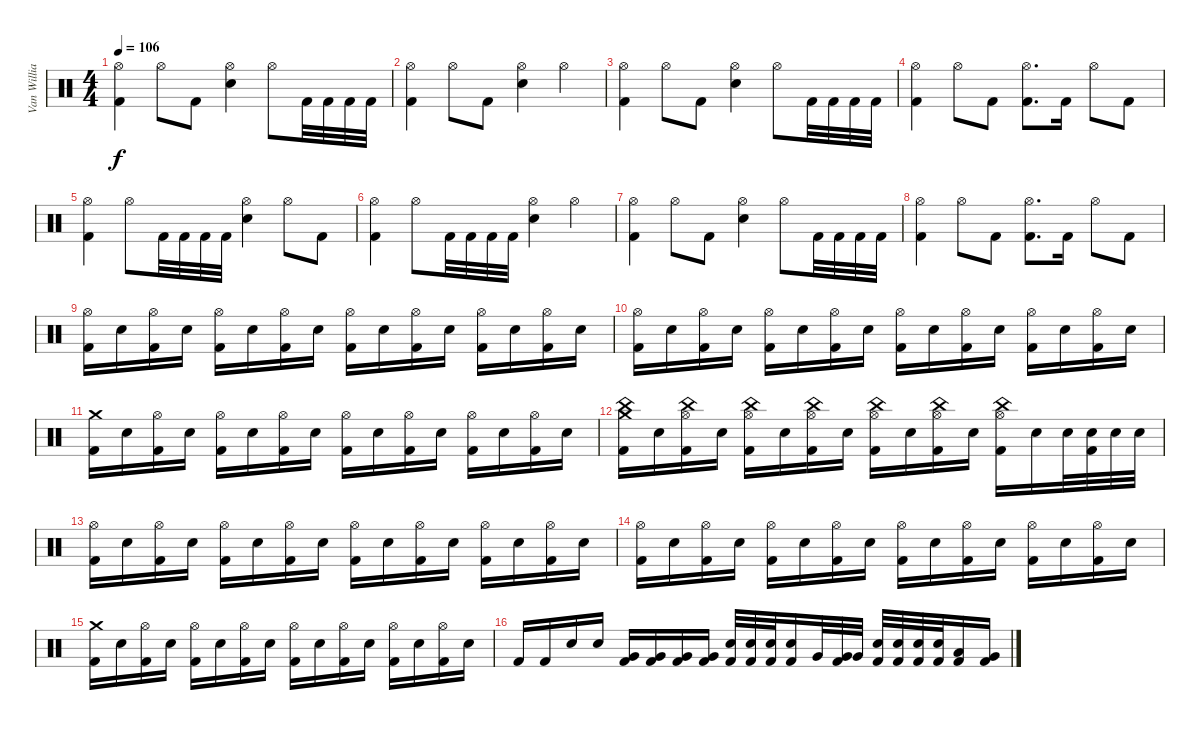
\track ("Van Williams" "Van Willia") {instrument percussion}
\staff {score}
\articulation defaults
\ts (4 4)
\tempo 106
\clef neutral
\ks c
("Hi-Hat (open)" "Kick (hit) 2").4{dy f} "Hi-Hat (open)".8 "Kick (hit) 2".8 ("Electric Snare (hit)" "Hi-Hat (open)").4 "Hi-Hat (open)".8 "Kick (hit) 2".32 "Kick (hit) 2".32 "Kick (hit) 2".32 "Kick (hit) 2".32 |
("Kick (hit) 2" "Hi-Hat (open)").4 "Hi-Hat (open)".8 "Kick (hit) 2".8 ("Electric Snare (hit)" "Hi-Hat (open)").4 "Hi-Hat (open)".4 |
("Kick (hit) 2" "Hi-Hat (open)").4 "Hi-Hat (open)".8 "Kick (hit) 2".8 ("Electric Snare (hit)" "Hi-Hat (open)").4 "Hi-Hat (open)".8 "Kick (hit) 2".32 "Kick (hit) 2".32 "Kick (hit) 2".32 "Kick (hit) 2".32 |
("Kick (hit) 2" "Hi-Hat (open)").4 "Hi-Hat (open)".8 "Kick (hit) 2".8 ("Kick (hit) 2" "Hi-Hat (open)").8{d} "Kick (hit) 2".16 "Hi-Hat (open)".8 "Kick (hit) 2".8 |
("Kick (hit) 2" "Hi-Hat (open)").4 "Hi-Hat (open)".8 "Kick (hit) 2".32 "Kick (hit) 2".32 "Kick (hit) 2".32 "Kick (hit) 2".32 ("Electric Snare (hit)" "Hi-Hat (open)").4 "Hi-Hat (open)".8 "Kick (hit) 2".8 |
("Kick (hit) 2" "Hi-Hat (open)").4 "Hi-Hat (open)".8 "Kick (hit) 2".32 "Kick (hit) 2".32 "Kick (hit) 2".32 "Kick (hit) 2".32 ("Electric Snare (hit)" "Hi-Hat (open)").4 "Hi-Hat (open)".4 |
("Kick (hit) 2" "Hi-Hat (open)").4 "Hi-Hat (open)".8 "Kick (hit) 2".8 ("Electric Snare (hit)" "Hi-Hat (open)").4 "Hi-Hat (open)".8 "Kick (hit) 2".32 "Kick (hit) 2".32 "Kick (hit) 2".32 "Kick (hit) 2".32 |
("Kick (hit) 2" "Hi-Hat (open)").4 "Hi-Hat (open)".8 "Kick (hit) 2".8 ("Kick (hit) 2" "Hi-Hat (open)").8{d} "Kick (hit) 2".16 "Hi-Hat (open)".8 "Kick (hit) 2".8 |
("Kick (hit) 2" "Hi-Hat (open)").16 "Electric Snare (hit)".16 ("Kick (hit) 2" "Hi-Hat (open)").16 "Electric Snare (hit)".16 ("Kick (hit) 2" "Hi-Hat (open)").16 "Electric Snare (hit)".16 ("Kick (hit) 2" "Hi-Hat (open)").16 "Electric Snare (hit)".16 ("Kick (hit) 2" "Hi-Hat (open)").16 "Electric Snare (hit)".16 ("Kick (hit) 2" "Hi-Hat (open)").16 "Electric Snare (hit)".16 ("Kick (hit) 2" "Hi-Hat (open)").16 "Electric Snare (hit)".16 ("Kick (hit) 2" "Hi-Hat (open)").16 "Electric Snare (hit)".16 |
("Kick (hit) 2" "Hi-Hat (open)").16 "Electric Snare (hit)".16 ("Kick (hit) 2" "Hi-Hat (open)").16 "Electric Snare (hit)".16 ("Kick (hit) 2" "Hi-Hat (open)").16 "Electric Snare (hit)".16 ("Kick (hit) 2" "Hi-Hat (open)").16 "Electric Snare (hit)".16 ("Kick (hit) 2" "Hi-Hat (open)").16 "Electric Snare (hit)".16 ("Kick (hit) 2" "Hi-Hat (open)").16 "Electric Snare (hit)".16 ("Kick (hit) 2" "Hi-Hat (open)").16 "Electric Snare (hit)".16 ("Kick (hit) 2" "Hi-Hat (open)").16 "Electric Snare (hit)".16 |
("Crash medium (hit)" "Kick (hit) 2").16 "Electric Snare (hit)".16 ("Kick (hit) 2" "Hi-Hat (open)").16 "Electric Snare (hit)".16 ("Kick (hit) 2" "Hi-Hat (open)").16 "Electric Snare (hit)".16 ("Kick (hit) 2" "Hi-Hat (open)").16 "Electric Snare (hit)".16 ("Kick (hit) 2" "Hi-Hat (open)").16 "Electric Snare (hit)".16 ("Kick (hit) 2" "Hi-Hat (open)").16 "Electric Snare (hit)".16 ("Kick (hit) 2" "Hi-Hat (open)").16 "Electric Snare (hit)".16 ("Kick (hit) 2" "Hi-Hat (open)").16 "Electric Snare (hit)".16 |
("Crash medium (hit)" "Kick (hit) 2" "China (hit)").16 "Electric Snare (hit)".16 ("Kick (hit) 2" "Hi-Hat (open)" "China (hit)").16 "Electric Snare (hit)".16 ("Kick (hit) 2" "Hi-Hat (open)" "China (hit)").16 "Electric Snare (hit)".16 ("Kick (hit) 2" "Hi-Hat (open)" "China (hit)").16 "Electric Snare (hit)".16 ("Kick (hit) 2" "Hi-Hat (open)" "China (hit)").16 "Electric Snare (hit)".16 ("Kick (hit) 2" "Hi-Hat (open)" "China (hit)").16 "Electric Snare (hit)".16 ("Kick (hit) 2" "Hi-Hat (open)" "China (hit)").16 "Electric Snare (hit)".16 "Electric Snare (hit)".32 ("Electric Snare (hit)" "Kick (hit) 2").32 "Electric Snare (hit)".32 "Electric Snare (hit)".32 |
("Kick (hit) 2" "Hi-Hat (open)").16 "Electric Snare (hit)".16 ("Kick (hit) 2" "Hi-Hat (open)").16 "Electric Snare (hit)".16 ("Kick (hit) 2" "Hi-Hat (open)").16 "Electric Snare (hit)".16 ("Kick (hit) 2" "Hi-Hat (open)").16 "Electric Snare (hit)".16 ("Kick (hit) 2" "Hi-Hat (open)").16 "Electric Snare (hit)".16 ("Kick (hit) 2" "Hi-Hat (open)").16 "Electric Snare (hit)".16 ("Kick (hit) 2" "Hi-Hat (open)").16 "Electric Snare (hit)".16 ("Kick (hit) 2" "Hi-Hat (open)").16 "Electric Snare (hit)".16 |
("Kick (hit) 2" "Hi-Hat (open)").16 "Electric Snare (hit)".16 ("Kick (hit) 2" "Hi-Hat (open)").16 "Electric Snare (hit)".16 ("Kick (hit) 2" "Hi-Hat (open)").16 "Electric Snare (hit)".16 ("Kick (hit) 2" "Hi-Hat (open)").16 "Electric Snare (hit)".16 ("Kick (hit) 2" "Hi-Hat (open)").16 "Electric Snare (hit)".16 ("Kick (hit) 2" "Hi-Hat (open)").16 "Electric Snare (hit)".16 ("Kick (hit) 2" "Hi-Hat (open)").16 "Electric Snare (hit)".16 ("Kick (hit) 2" "Hi-Hat (open)").16 "Electric Snare (hit)".16 |
("Crash medium (hit)" "Kick (hit) 2").16 "Electric Snare (hit)".16 ("Kick (hit) 2" "Hi-Hat (open)").16 "Electric Snare (hit)".16 ("Kick (hit) 2" "Hi-Hat (open)").16 "Electric Snare (hit)".16 ("Kick (hit) 2" "Hi-Hat (open)").16 "Electric Snare (hit)".16 ("Kick (hit) 2" "Hi-Hat (open)").16 "Electric Snare (hit)".16 ("Kick (hit) 2" "Hi-Hat (open)").16 "Electric Snare (hit)".16 ("Kick (hit) 2" "Hi-Hat (open)").16 "Electric Snare (hit)".16 ("Kick (hit) 2" "Hi-Hat (open)").16 "Electric Snare (hit)".16 |
"Kick (hit) 2".16 "Kick (hit) 2".16 "Electric Snare (hit)".16 "Electric Snare (hit)".16 ("Kick (hit) 2" "Very Low Tom (hit)").16 ("Kick (hit) 2" "Very Low Tom (hit)").16 ("Kick (hit) 2" "Very Low Tom (hit)").16 ("Kick (hit) 2" "Very Low Tom (hit)").16 ("Kick (hit) 2" "Electric Snare (hit)").32 ("Kick (hit) 2" "Electric Snare (hit)").32 ("Kick (hit) 2" "Electric Snare (hit)").32 ("Kick (hit) 2" "Electric Snare (hit)").16 "Very Low Tom (hit)".32 ("Kick (hit) 2" "Very Low Tom (hit)").32 "Very Low Tom (hit)".32 ("Kick (hit) 2" "Electric Snare (hit)").32 ("Kick (hit) 2" "Electric Snare (hit)").32 ("Kick (hit) 2" "Electric Snare (hit)").32 ("Kick (hit) 2" "Electric Snare (hit)").32 ("Kick (hit) 2" "Low Tom (hit)").16 ("Kick (hit) 2" "Very Low Tom (hit)").16
